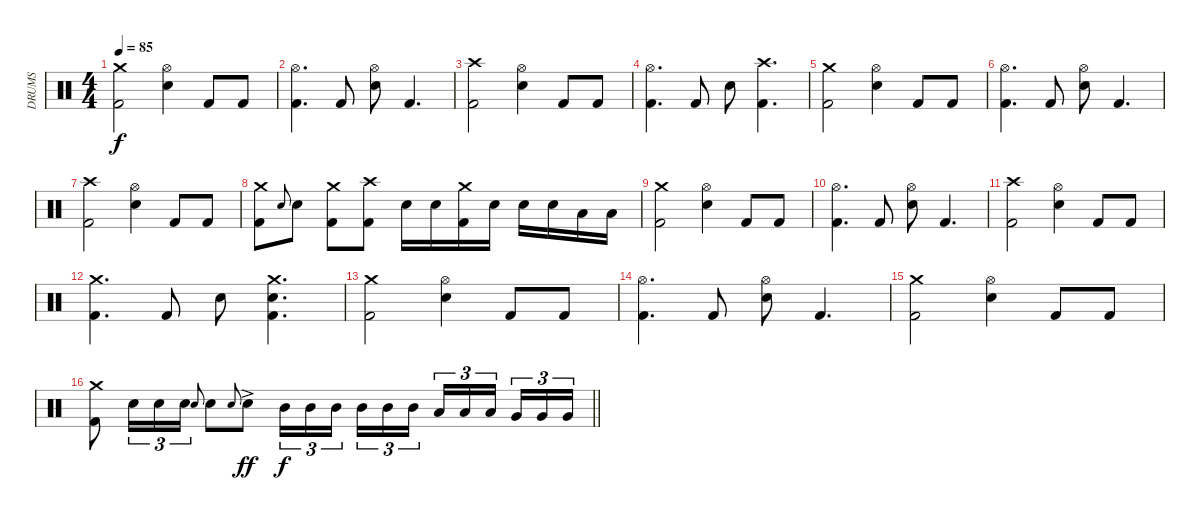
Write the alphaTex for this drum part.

\track ("DRUMS" "DRUMS") {instrument percussion}
\staff {score}
\articulation defaults
\ts (4 4)
\tempo 85
\clef neutral
\ks c
("Crash medium (hit)" "Kick (hit) 2").2{dy f} ("Hi-Hat (open)" "Snare (hit) 2").4 "Kick (hit) 2".8 "Kick (hit) 2".8 |
("Hi-Hat (open)" "Kick (hit) 2").4{d} "Kick (hit) 2".8 ("Hi-Hat (open)" "Snare (hit) 2").8 "Kick (hit) 2".4{d} |
("Crash high (hit)" "Kick (hit) 2").2 ("Hi-Hat (open)" "Snare (hit) 2").4 "Kick (hit) 2".8 "Kick (hit) 2".8 |
("Hi-Hat (open)" "Kick (hit) 2").4{d} "Kick (hit) 2".8 "Snare (hit) 2".8 ("Crash high (hit)" "Kick (hit) 2").4{d} |
("Crash medium (hit)" "Kick (hit) 2").2 ("Hi-Hat (open)" "Snare (hit) 2").4 "Kick (hit) 2".8 "Kick (hit) 2".8 |
("Hi-Hat (open)" "Kick (hit) 2").4{d} "Kick (hit) 2".8 ("Hi-Hat (open)" "Snare (hit) 2").8 "Kick (hit) 2".4{d} |
("Crash high (hit)" "Kick (hit) 2").2 ("Hi-Hat (open)" "Snare (hit) 2").4 "Kick (hit) 2".8 "Kick (hit) 2".8 |
("Crash medium (hit)" "Kick (hit) 2").8 "Snare (hit) 2".8{gr onbeat} "Snare (hit) 2".8 ("Crash medium (hit)" "Kick (hit) 2").8 ("Crash high (hit)" "Kick (hit) 2").8 "Snare (hit) 2".16 "Snare (hit) 2".16 ("Crash medium (hit)" "Kick (hit) 2").16 "Snare (hit) 2".16 "Snare (hit) 2".16 "Snare (hit) 2".16 "Low Tom (hit)".16 "Low Tom (hit)".16 |
("Crash medium (hit)" "Kick (hit) 2").2 ("Hi-Hat (open)" "Snare (hit) 2").4 "Kick (hit) 2".8 "Kick (hit) 2".8 |
("Hi-Hat (open)" "Kick (hit) 2").4{d} "Kick (hit) 2".8 ("Hi-Hat (open)" "Snare (hit) 2").8 "Kick (hit) 2".4{d} |
("Crash high (hit)" "Kick (hit) 2").2 ("Hi-Hat (open)" "Snare (hit) 2").4 "Kick (hit) 2".8 "Kick (hit) 2".8 |
("Crash medium (hit)" "Kick (hit) 2").4{d} "Kick (hit) 2".8 "Snare (hit) 2".8 ("Crash medium (hit)" "Snare (hit) 2" "Kick (hit) 2").4{d} |
("Crash medium (hit)" "Kick (hit) 2").2 ("Hi-Hat (open)" "Snare (hit) 2").4 "Kick (hit) 2".8 "Kick (hit) 2".8 |
("Hi-Hat (open)" "Kick (hit) 2").4{d} "Kick (hit) 2".8 ("Hi-Hat (open)" "Snare (hit) 2").8 "Kick (hit) 2".4{d} |
("Crash medium (hit)" "Kick (hit) 2").2 ("Hi-Hat (open)" "Snare (hit) 2").4 "Kick (hit) 2".8 "Kick (hit) 2".8 |
\barLineRight lightlight
("Crash medium (hit)" "Kick (hit) 2").8 "Snare (hit) 2".16{tu (3 2)} "Snare (hit) 2".16{tu (3 2)} "Snare (hit) 2".16{tu (3 2)} "Snare (hit) 2".8{gr onbeat} "Snare (hit) 2".8 "Snare (hit) 2".8{gr onbeat} "Snare (hit) 2"{ac}.8{dy ff} "Mid Tom (hit)".16{tu (3 2) dy f} "Mid Tom (hit)".16{tu (3 2)} "Mid Tom (hit)".16{tu (3 2) beam splitsecondary} "Mid Tom (hit)".16{tu (3 2)} "Mid Tom (hit)".16{tu (3 2)} "Mid Tom (hit)".16{tu (3 2)} "Low Tom (hit)".16{tu (3 2)} "Low Tom (hit)".16{tu (3 2)} "Low Tom (hit)".16{tu (3 2) beam splitsecondary} "Very Low Tom (hit)".16{tu (3 2)} "Very Low Tom (hit)".16{tu (3 2)} "Very Low Tom (hit)".16{tu (3 2)}
